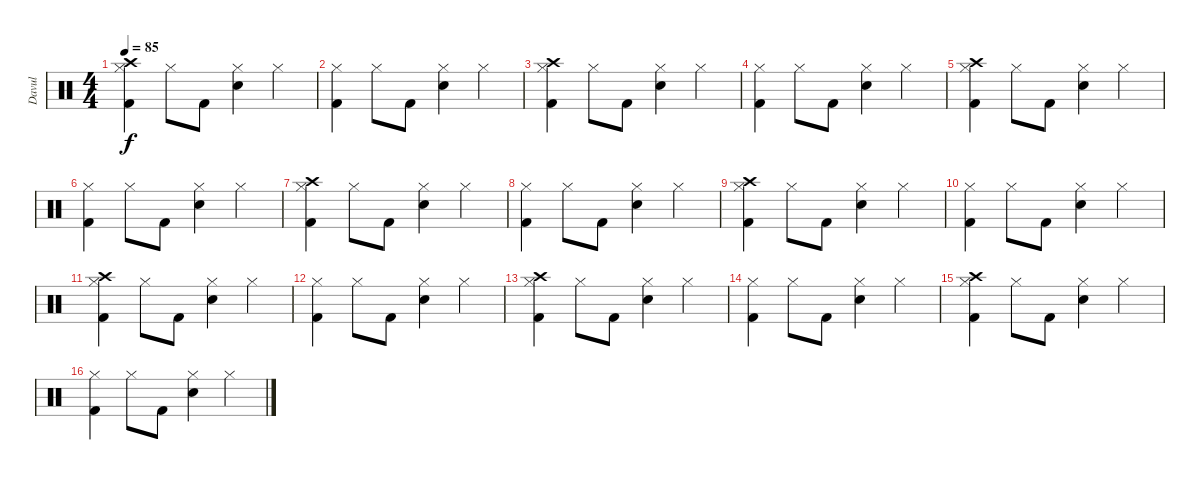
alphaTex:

\track ("Davul" "Davul") {instrument percussion}
\staff {score}
\articulation defaults
\ts (4 4)
\tempo 85
\clef neutral
\ks c
("Hi-Hat (closed)" "Crash high (hit)" "Kick (hit) 2").4{dy f} "Hi-Hat (closed)".8 "Kick (hit) 2".8 ("Hi-Hat (closed)" "Snare (hit) 2").4 "Hi-Hat (closed)".4 |
("Hi-Hat (closed)" "Kick (hit) 2").4 "Hi-Hat (closed)".8 "Kick (hit) 2".8 ("Hi-Hat (closed)" "Snare (hit) 2").4 "Hi-Hat (closed)".4 |
("Hi-Hat (closed)" "Crash high (hit)" "Kick (hit) 2").4 "Hi-Hat (closed)".8 "Kick (hit) 2".8 ("Hi-Hat (closed)" "Snare (hit) 2").4 "Hi-Hat (closed)".4 |
("Hi-Hat (closed)" "Kick (hit) 2").4 "Hi-Hat (closed)".8 "Kick (hit) 2".8 ("Hi-Hat (closed)" "Snare (hit) 2").4 "Hi-Hat (closed)".4 |
("Hi-Hat (closed)" "Crash high (hit)" "Kick (hit) 2").4 "Hi-Hat (closed)".8 "Kick (hit) 2".8 ("Hi-Hat (closed)" "Snare (hit) 2").4 "Hi-Hat (closed)".4 |
("Hi-Hat (closed)" "Kick (hit) 2").4 "Hi-Hat (closed)".8 "Kick (hit) 2".8 ("Hi-Hat (closed)" "Snare (hit) 2").4 "Hi-Hat (closed)".4 |
("Hi-Hat (closed)" "Crash high (hit)" "Kick (hit) 2").4 "Hi-Hat (closed)".8 "Kick (hit) 2".8 ("Hi-Hat (closed)" "Snare (hit) 2").4 "Hi-Hat (closed)".4 |
("Hi-Hat (closed)" "Kick (hit) 2").4 "Hi-Hat (closed)".8 "Kick (hit) 2".8 ("Hi-Hat (closed)" "Snare (hit) 2").4 "Hi-Hat (closed)".4 |
("Hi-Hat (closed)" "Crash high (hit)" "Kick (hit) 2").4 "Hi-Hat (closed)".8 "Kick (hit) 2".8 ("Hi-Hat (closed)" "Snare (hit) 2").4 "Hi-Hat (closed)".4 |
("Hi-Hat (closed)" "Kick (hit) 2").4 "Hi-Hat (closed)".8 "Kick (hit) 2".8 ("Hi-Hat (closed)" "Snare (hit) 2").4 "Hi-Hat (closed)".4 |
("Hi-Hat (closed)" "Crash high (hit)" "Kick (hit) 2").4 "Hi-Hat (closed)".8 "Kick (hit) 2".8 ("Hi-Hat (closed)" "Snare (hit) 2").4 "Hi-Hat (closed)".4 |
("Hi-Hat (closed)" "Kick (hit) 2").4 "Hi-Hat (closed)".8 "Kick (hit) 2".8 ("Hi-Hat (closed)" "Snare (hit) 2").4 "Hi-Hat (closed)".4 |
("Hi-Hat (closed)" "Crash high (hit)" "Kick (hit) 2").4 "Hi-Hat (closed)".8 "Kick (hit) 2".8 ("Hi-Hat (closed)" "Snare (hit) 2").4 "Hi-Hat (closed)".4 |
("Hi-Hat (closed)" "Kick (hit) 2").4 "Hi-Hat (closed)".8 "Kick (hit) 2".8 ("Hi-Hat (closed)" "Snare (hit) 2").4 "Hi-Hat (closed)".4 |
("Hi-Hat (closed)" "Crash high (hit)" "Kick (hit) 2").4 "Hi-Hat (closed)".8 "Kick (hit) 2".8 ("Hi-Hat (closed)" "Snare (hit) 2").4 "Hi-Hat (closed)".4 |
("Hi-Hat (closed)" "Kick (hit) 2").4 "Hi-Hat (closed)".8 "Kick (hit) 2".8 ("Hi-Hat (closed)" "Snare (hit) 2").4 "Hi-Hat (closed)".4
